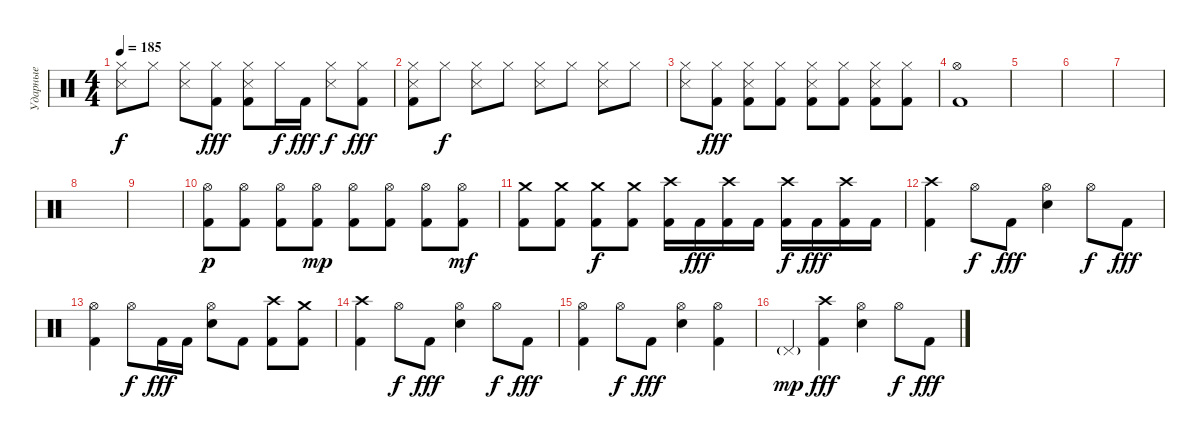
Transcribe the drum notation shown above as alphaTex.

\track ("Ударные" "Ударные") {instrument percussion}
\staff {score}
\articulation defaults
\ts (4 4)
\tempo 185
\clef neutral
\ks c
("Hi-Hat (closed)" "Snare (side stick) 3").8{dy f} "Hi-Hat (closed)".8 ("Hi-Hat (closed)" "Snare (side stick) 3").8 ("Hi-Hat (closed)" "Kick (hit) 2").8{dy fff} ("Hi-Hat (closed)" "Snare (side stick) 3" "Kick (hit) 2").8 "Hi-Hat (closed)".16{dy f} "Kick (hit) 2".16{dy fff} ("Hi-Hat (closed)" "Snare (side stick) 3").8{dy f} ("Hi-Hat (closed)" "Kick (hit) 2").8{dy fff} |
("Hi-Hat (closed)" "Snare (side stick) 3" "Kick (hit) 2").8 "Hi-Hat (closed)".8{dy f} ("Hi-Hat (closed)" "Snare (side stick) 3").8 "Hi-Hat (closed)".8 ("Hi-Hat (closed)" "Snare (side stick) 3").8 "Hi-Hat (closed)".8 ("Hi-Hat (closed)" "Snare (side stick) 3").8 "Hi-Hat (closed)".8 |
("Hi-Hat (closed)" "Snare (side stick) 3").8 ("Hi-Hat (closed)" "Kick (hit) 2").8{dy fff} ("Hi-Hat (closed)" "Snare (side stick) 3" "Kick (hit) 2").8 ("Hi-Hat (closed)" "Kick (hit) 2").8 ("Hi-Hat (closed)" "Snare (side stick) 3" "Kick (hit) 2").8 ("Hi-Hat (closed)" "Kick (hit) 2").8 ("Hi-Hat (closed)" "Snare (side stick) 3" "Kick (hit) 2").8 ("Hi-Hat (closed)" "Kick (hit) 2").8 |
("Hi-Hat (open)" "Kick (hit) 2").1 |
|
|
|
|
|
("Hi-Hat (open)" "Kick (hit) 2").8{dy p} ("Hi-Hat (open)" "Kick (hit) 2").8 ("Hi-Hat (open)" "Kick (hit) 2").8 ("Hi-Hat (open)" "Kick (hit) 2").8{dy mp} ("Hi-Hat (open)" "Kick (hit) 2").8 ("Hi-Hat (open)" "Kick (hit) 2").8 ("Hi-Hat (open)" "Kick (hit) 2").8 ("Hi-Hat (open)" "Kick (hit) 2").8{dy mf} |
("Crash medium (hit)" "Kick (hit) 2").8 ("Crash medium (hit)" "Kick (hit) 2").8 ("Crash medium (hit)" "Kick (hit) 2").8{dy f} ("Crash medium (hit)" "Kick (hit) 2").8 ("Crash high (hit)" "Kick (hit) 2").16 "Kick (hit) 2".16{dy fff} ("Crash high (hit)" "Kick (hit) 2").16 "Kick (hit) 2".16 ("Crash high (hit)" "Kick (hit) 2").16{dy f} "Kick (hit) 2".16{dy fff} ("Crash high (hit)" "Kick (hit) 2").16 "Kick (hit) 2".16 |
("Crash high (hit)" "Kick (hit) 2").4 "Hi-Hat (open)".8{dy f} "Kick (hit) 2".8{dy fff} ("Hi-Hat (open)" "Electric Snare (hit)").4 "Hi-Hat (open)".8{dy f} "Kick (hit) 2".8{dy fff} |
("Hi-Hat (open)" "Kick (hit) 2").4 "Hi-Hat (open)".8{dy f} "Kick (hit) 2".16{dy fff} "Kick (hit) 2".16 ("Hi-Hat (open)" "Electric Snare (hit)").8 "Kick (hit) 2".8 ("Crash high (hit)" "Kick (hit) 2").8 ("Crash medium (hit)" "Kick (hit) 2").8 |
("Crash high (hit)" "Kick (hit) 2").4 "Hi-Hat (open)".8{dy f} "Kick (hit) 2".8{dy fff} ("Hi-Hat (open)" "Electric Snare (hit)").4 "Hi-Hat (open)".8{dy f} "Kick (hit) 2".8{dy fff} |
("Hi-Hat (open)" "Kick (hit) 2").4 "Hi-Hat (open)".8{dy f} "Kick (hit) 2".8{dy fff} ("Hi-Hat (open)" "Electric Snare (hit)").4 ("Hi-Hat (open)" "Kick (hit) 2").4 |
"Pedal Hi-Hat (hit)"{g}.4{dy mp} ("Crash high (hit)" "Kick (hit) 2").4{dy fff} ("Hi-Hat (open)" "Electric Snare (hit)").4 "Hi-Hat (open)".8{dy f} "Kick (hit) 2".8{dy fff}
